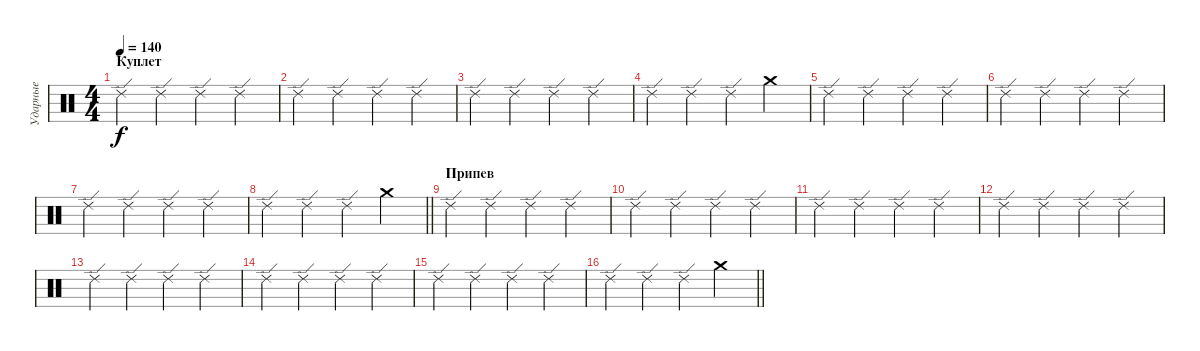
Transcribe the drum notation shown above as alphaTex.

\track ("Ударные" "Ударные") {instrument percussion}
\staff {score}
\articulation defaults
\ts (4 4)
\section ("" "Куплет")
\tempo 140
\clef neutral
\ks c "Ride (edge) 2".4{dy f} "Ride (edge) 2".4 "Ride (edge) 2".4 "Ride (edge) 2".4
|
"Ride (edge) 2".4 "Ride (edge) 2".4 "Ride (edge) 2".4 "Ride (edge) 2".4 |
"Ride (edge) 2".4 "Ride (edge) 2".4 "Ride (edge) 2".4 "Ride (edge) 2".4 |
"Ride (edge) 2".4 "Ride (edge) 2".4 "Ride (edge) 2".4 "Crash medium (hit)".4 |
"Ride (edge) 2".4 "Ride (edge) 2".4 "Ride (edge) 2".4 "Ride (edge) 2".4 |
"Ride (edge) 2".4 "Ride (edge) 2".4 "Ride (edge) 2".4 "Ride (edge) 2".4 |
"Ride (edge) 2".4 "Ride (edge) 2".4 "Ride (edge) 2".4 "Ride (edge) 2".4 |
\barLineRight lightlight "Ride (edge) 2".4 "Ride (edge) 2".4 "Ride (edge) 2".4 "Crash medium (hit)".4
|
\section ("" "Припев")
"Ride (edge) 2".4 "Ride (edge) 2".4 "Ride (edge) 2".4 "Ride (edge) 2".4 |
"Ride (edge) 2".4 "Ride (edge) 2".4 "Ride (edge) 2".4 "Ride (edge) 2".4 |
"Ride (edge) 2".4 "Ride (edge) 2".4 "Ride (edge) 2".4 "Ride (edge) 2".4 |
"Ride (edge) 2".4 "Ride (edge) 2".4 "Ride (edge) 2".4 "Ride (edge) 2".4 |
"Ride (edge) 2".4 "Ride (edge) 2".4 "Ride (edge) 2".4 "Ride (edge) 2".4 |
"Ride (edge) 2".4 "Ride (edge) 2".4 "Ride (edge) 2".4 "Ride (edge) 2".4 |
"Ride (edge) 2".4 "Ride (edge) 2".4 "Ride (edge) 2".4 "Ride (edge) 2".4 |
\barLineRight lightlight "Ride (edge) 2".4 "Ride (edge) 2".4 "Ride (edge) 2".4 "Crash medium (hit)".4
